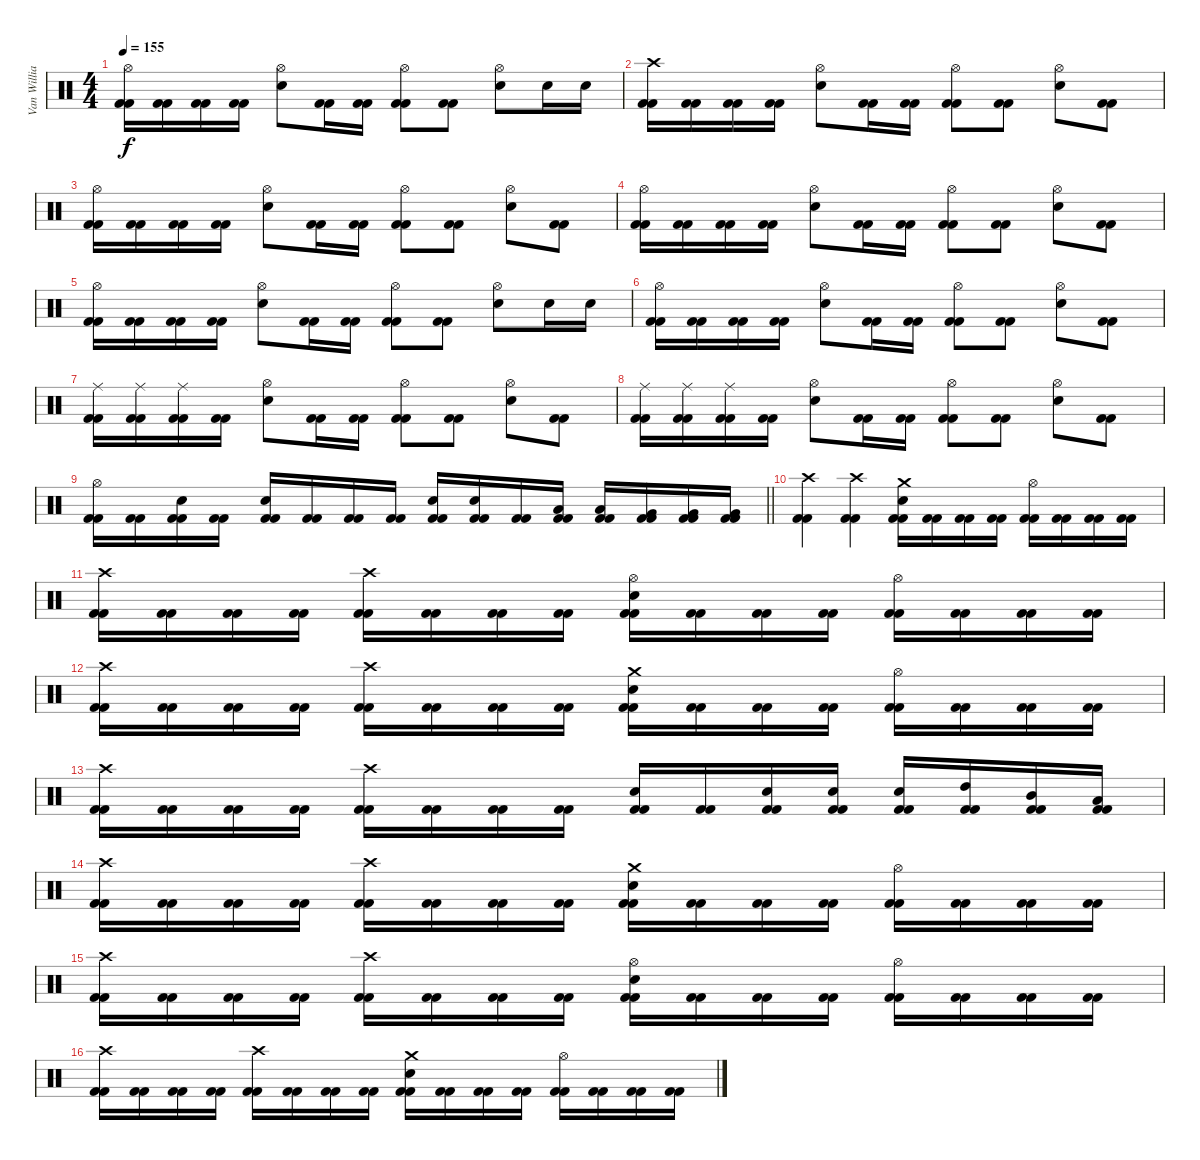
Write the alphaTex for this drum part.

\track ("Van Williams" "Van Willia") {instrument percussion}
\staff {score}
\articulation defaults
\ts (4 4)
\tempo 155
\clef neutral
\ks c
("Hi-Hat (open)" "Kick (hit) 2" "Kick (hit) 2").16{dy f} ("Kick (hit) 2" "Kick (hit) 2").16 ("Kick (hit) 2" "Kick (hit) 2").16 ("Kick (hit) 2" "Kick (hit) 2").16 ("Hi-Hat (open)" "Electric Snare (hit)").8 ("Kick (hit) 2" "Kick (hit) 2").16 ("Kick (hit) 2" "Kick (hit) 2").16 ("Hi-Hat (open)" "Kick (hit) 2" "Kick (hit) 2").8 ("Kick (hit) 2" "Kick (hit) 2").8 ("Hi-Hat (open)" "Electric Snare (hit)").8 "Electric Snare (hit)".16 "Electric Snare (hit)".16 |
("Crash high (hit)" "Kick (hit) 2" "Kick (hit) 2").16 ("Kick (hit) 2" "Kick (hit) 2").16 ("Kick (hit) 2" "Kick (hit) 2").16 ("Kick (hit) 2" "Kick (hit) 2").16 ("Hi-Hat (open)" "Electric Snare (hit)").8 ("Kick (hit) 2" "Kick (hit) 2").16 ("Kick (hit) 2" "Kick (hit) 2").16 ("Hi-Hat (open)" "Kick (hit) 2" "Kick (hit) 2").8 ("Kick (hit) 2" "Kick (hit) 2").8 ("Hi-Hat (open)" "Electric Snare (hit)").8 ("Kick (hit) 2" "Kick (hit) 2").8 |
("Hi-Hat (open)" "Kick (hit) 2" "Kick (hit) 2").16 ("Kick (hit) 2" "Kick (hit) 2").16 ("Kick (hit) 2" "Kick (hit) 2").16 ("Kick (hit) 2" "Kick (hit) 2").16 ("Hi-Hat (open)" "Electric Snare (hit)").8 ("Kick (hit) 2" "Kick (hit) 2").16 ("Kick (hit) 2" "Kick (hit) 2").16 ("Hi-Hat (open)" "Kick (hit) 2" "Kick (hit) 2").8 ("Kick (hit) 2" "Kick (hit) 2").8 ("Hi-Hat (open)" "Electric Snare (hit)").8 ("Kick (hit) 2" "Kick (hit) 2").8 |
("Hi-Hat (open)" "Kick (hit) 2" "Kick (hit) 2").16 ("Kick (hit) 2" "Kick (hit) 2").16 ("Kick (hit) 2" "Kick (hit) 2").16 ("Kick (hit) 2" "Kick (hit) 2").16 ("Hi-Hat (open)" "Electric Snare (hit)").8 ("Kick (hit) 2" "Kick (hit) 2").16 ("Kick (hit) 2" "Kick (hit) 2").16 ("Hi-Hat (open)" "Kick (hit) 2" "Kick (hit) 2").8 ("Kick (hit) 2" "Kick (hit) 2").8 ("Hi-Hat (open)" "Electric Snare (hit)").8 ("Kick (hit) 2" "Kick (hit) 2").8 |
("Hi-Hat (open)" "Kick (hit) 2" "Kick (hit) 2").16 ("Kick (hit) 2" "Kick (hit) 2").16 ("Kick (hit) 2" "Kick (hit) 2").16 ("Kick (hit) 2" "Kick (hit) 2").16 ("Hi-Hat (open)" "Electric Snare (hit)").8 ("Kick (hit) 2" "Kick (hit) 2").16 ("Kick (hit) 2" "Kick (hit) 2").16 ("Hi-Hat (open)" "Kick (hit) 2" "Kick (hit) 2").8 ("Kick (hit) 2" "Kick (hit) 2").8 ("Hi-Hat (open)" "Electric Snare (hit)").8 "Electric Snare (hit)".16 "Electric Snare (hit)".16 |
("Hi-Hat (open)" "Kick (hit) 2" "Kick (hit) 2").16 ("Kick (hit) 2" "Kick (hit) 2").16 ("Kick (hit) 2" "Kick (hit) 2").16 ("Kick (hit) 2" "Kick (hit) 2").16 ("Hi-Hat (open)" "Electric Snare (hit)").8 ("Kick (hit) 2" "Kick (hit) 2").16 ("Kick (hit) 2" "Kick (hit) 2").16 ("Hi-Hat (open)" "Kick (hit) 2" "Kick (hit) 2").8 ("Kick (hit) 2" "Kick (hit) 2").8 ("Hi-Hat (open)" "Electric Snare (hit)").8 ("Kick (hit) 2" "Kick (hit) 2").8 |
("Ride (middle)" "Kick (hit) 2" "Kick (hit) 2").16 ("Ride (middle)" "Kick (hit) 2" "Kick (hit) 2").16 ("Ride (middle)" "Kick (hit) 2" "Kick (hit) 2").16 ("Kick (hit) 2" "Kick (hit) 2").16 ("Hi-Hat (open)" "Electric Snare (hit)").8 ("Kick (hit) 2" "Kick (hit) 2").16 ("Kick (hit) 2" "Kick (hit) 2").16 ("Hi-Hat (open)" "Kick (hit) 2" "Kick (hit) 2").8 ("Kick (hit) 2" "Kick (hit) 2").8 ("Hi-Hat (open)" "Electric Snare (hit)").8 ("Kick (hit) 2" "Kick (hit) 2").8 |
("Ride (middle)" "Kick (hit) 2" "Kick (hit) 2").16 ("Ride (middle)" "Kick (hit) 2" "Kick (hit) 2").16 ("Ride (middle)" "Kick (hit) 2" "Kick (hit) 2").16 ("Kick (hit) 2" "Kick (hit) 2").16 ("Hi-Hat (open)" "Electric Snare (hit)").8 ("Kick (hit) 2" "Kick (hit) 2").16 ("Kick (hit) 2" "Kick (hit) 2").16 ("Hi-Hat (open)" "Kick (hit) 2" "Kick (hit) 2").8 ("Kick (hit) 2" "Kick (hit) 2").8 ("Hi-Hat (open)" "Electric Snare (hit)").8 ("Kick (hit) 2" "Kick (hit) 2").8 |
\barLineRight lightlight
("Hi-Hat (open)" "Kick (hit) 2" "Kick (hit) 2").16 ("Kick (hit) 2" "Kick (hit) 2").16 ("Electric Snare (hit)" "Kick (hit) 2" "Kick (hit) 2").16 ("Kick (hit) 2" "Kick (hit) 2").16 ("Electric Snare (hit)" "Kick (hit) 2" "Kick (hit) 2").16 ("Kick (hit) 2" "Kick (hit) 2").16 ("Kick (hit) 2" "Kick (hit) 2").16 ("Kick (hit) 2" "Kick (hit) 2").16 ("Electric Snare (hit)" "Kick (hit) 2" "Kick (hit) 2").16 ("Electric Snare (hit)" "Kick (hit) 2" "Kick (hit) 2").16 ("Kick (hit) 2" "Kick (hit) 2").16 ("Low Tom (hit)" "Kick (hit) 2" "Kick (hit) 2").16 ("Low Tom (hit)" "Kick (hit) 2" "Kick (hit) 2").16 ("Very Low Tom (hit)" "Kick (hit) 2" "Kick (hit) 2").16 ("Very Low Tom (hit)" "Kick (hit) 2" "Kick (hit) 2").16 ("Very Low Tom (hit)" "Kick (hit) 2" "Kick (hit) 2").16 |
("Crash high (hit)" "Kick (hit) 2" "Kick (hit) 2").4 ("Crash high (hit)" "Kick (hit) 2" "Kick (hit) 2").4 ("Crash medium (hit)" "Electric Snare (hit)" "Kick (hit) 2" "Kick (hit) 2").16 ("Kick (hit) 2" "Kick (hit) 2").16 ("Kick (hit) 2" "Kick (hit) 2").16 ("Kick (hit) 2" "Kick (hit) 2").16 ("Hi-Hat (open)" "Kick (hit) 2" "Kick (hit) 2").16 ("Kick (hit) 2" "Kick (hit) 2").16 ("Kick (hit) 2" "Kick (hit) 2").16 ("Kick (hit) 2" "Kick (hit) 2").16 |
("Crash high (hit)" "Kick (hit) 2" "Kick (hit) 2").16 ("Kick (hit) 2" "Kick (hit) 2").16 ("Kick (hit) 2" "Kick (hit) 2").16 ("Kick (hit) 2" "Kick (hit) 2").16 ("Crash high (hit)" "Kick (hit) 2" "Kick (hit) 2").16 ("Kick (hit) 2" "Kick (hit) 2").16 ("Kick (hit) 2" "Kick (hit) 2").16 ("Kick (hit) 2" "Kick (hit) 2").16 ("Hi-Hat (open)" "Electric Snare (hit)" "Kick (hit) 2" "Kick (hit) 2").16 ("Kick (hit) 2" "Kick (hit) 2").16 ("Kick (hit) 2" "Kick (hit) 2").16 ("Kick (hit) 2" "Kick (hit) 2").16 ("Hi-Hat (open)" "Kick (hit) 2" "Kick (hit) 2").16 ("Kick (hit) 2" "Kick (hit) 2").16 ("Kick (hit) 2" "Kick (hit) 2").16 ("Kick (hit) 2" "Kick (hit) 2").16 |
("Crash high (hit)" "Kick (hit) 2" "Kick (hit) 2").16 ("Kick (hit) 2" "Kick (hit) 2").16 ("Kick (hit) 2" "Kick (hit) 2").16 ("Kick (hit) 2" "Kick (hit) 2").16 ("Crash high (hit)" "Kick (hit) 2" "Kick (hit) 2").16 ("Kick (hit) 2" "Kick (hit) 2").16 ("Kick (hit) 2" "Kick (hit) 2").16 ("Kick (hit) 2" "Kick (hit) 2").16 ("Crash medium (hit)" "Electric Snare (hit)" "Kick (hit) 2" "Kick (hit) 2").16 ("Kick (hit) 2" "Kick (hit) 2").16 ("Kick (hit) 2" "Kick (hit) 2").16 ("Kick (hit) 2" "Kick (hit) 2").16 ("Hi-Hat (open)" "Kick (hit) 2" "Kick (hit) 2").16 ("Kick (hit) 2" "Kick (hit) 2").16 ("Kick (hit) 2" "Kick (hit) 2").16 ("Kick (hit) 2" "Kick (hit) 2").16 |
("Crash high (hit)" "Kick (hit) 2" "Kick (hit) 2").16 ("Kick (hit) 2" "Kick (hit) 2").16 ("Kick (hit) 2" "Kick (hit) 2").16 ("Kick (hit) 2" "Kick (hit) 2").16 ("Crash high (hit)" "Kick (hit) 2" "Kick (hit) 2").16 ("Kick (hit) 2" "Kick (hit) 2").16 ("Kick (hit) 2" "Kick (hit) 2").16 ("Kick (hit) 2" "Kick (hit) 2").16 ("Electric Snare (hit)" "Kick (hit) 2" "Kick (hit) 2").16 ("Kick (hit) 2" "Kick (hit) 2").16 ("Electric Snare (hit)" "Kick (hit) 2" "Kick (hit) 2").16 ("Electric Snare (hit)" "Kick (hit) 2" "Kick (hit) 2").16 ("Electric Snare (hit)" "Kick (hit) 2" "Kick (hit) 2").16 ("High Tom (hit)" "Kick (hit) 2" "Kick (hit) 2").16 ("Mid Tom (hit)" "Kick (hit) 2" "Kick (hit) 2").16 ("Low Tom (hit)" "Kick (hit) 2" "Kick (hit) 2").16 |
("Crash high (hit)" "Kick (hit) 2" "Kick (hit) 2").16 ("Kick (hit) 2" "Kick (hit) 2").16 ("Kick (hit) 2" "Kick (hit) 2").16 ("Kick (hit) 2" "Kick (hit) 2").16 ("Crash high (hit)" "Kick (hit) 2" "Kick (hit) 2").16 ("Kick (hit) 2" "Kick (hit) 2").16 ("Kick (hit) 2" "Kick (hit) 2").16 ("Kick (hit) 2" "Kick (hit) 2").16 ("Crash medium (hit)" "Electric Snare (hit)" "Kick (hit) 2" "Kick (hit) 2").16 ("Kick (hit) 2" "Kick (hit) 2").16 ("Kick (hit) 2" "Kick (hit) 2").16 ("Kick (hit) 2" "Kick (hit) 2").16 ("Hi-Hat (open)" "Kick (hit) 2" "Kick (hit) 2").16 ("Kick (hit) 2" "Kick (hit) 2").16 ("Kick (hit) 2" "Kick (hit) 2").16 ("Kick (hit) 2" "Kick (hit) 2").16 |
("Crash high (hit)" "Kick (hit) 2" "Kick (hit) 2").16 ("Kick (hit) 2" "Kick (hit) 2").16 ("Kick (hit) 2" "Kick (hit) 2").16 ("Kick (hit) 2" "Kick (hit) 2").16 ("Crash high (hit)" "Kick (hit) 2" "Kick (hit) 2").16 ("Kick (hit) 2" "Kick (hit) 2").16 ("Kick (hit) 2" "Kick (hit) 2").16 ("Kick (hit) 2" "Kick (hit) 2").16 ("Hi-Hat (open)" "Electric Snare (hit)" "Kick (hit) 2" "Kick (hit) 2").16 ("Kick (hit) 2" "Kick (hit) 2").16 ("Kick (hit) 2" "Kick (hit) 2").16 ("Kick (hit) 2" "Kick (hit) 2").16 ("Hi-Hat (open)" "Kick (hit) 2" "Kick (hit) 2").16 ("Kick (hit) 2" "Kick (hit) 2").16 ("Kick (hit) 2" "Kick (hit) 2").16 ("Kick (hit) 2" "Kick (hit) 2").16 |
("Crash high (hit)" "Kick (hit) 2" "Kick (hit) 2").16 ("Kick (hit) 2" "Kick (hit) 2").16 ("Kick (hit) 2" "Kick (hit) 2").16 ("Kick (hit) 2" "Kick (hit) 2").16 ("Crash high (hit)" "Kick (hit) 2" "Kick (hit) 2").16 ("Kick (hit) 2" "Kick (hit) 2").16 ("Kick (hit) 2" "Kick (hit) 2").16 ("Kick (hit) 2" "Kick (hit) 2").16 ("Crash medium (hit)" "Electric Snare (hit)" "Kick (hit) 2" "Kick (hit) 2").16 ("Kick (hit) 2" "Kick (hit) 2").16 ("Kick (hit) 2" "Kick (hit) 2").16 ("Kick (hit) 2" "Kick (hit) 2").16 ("Hi-Hat (open)" "Kick (hit) 2" "Kick (hit) 2").16 ("Kick (hit) 2" "Kick (hit) 2").16 ("Kick (hit) 2" "Kick (hit) 2").16 ("Kick (hit) 2" "Kick (hit) 2").16
